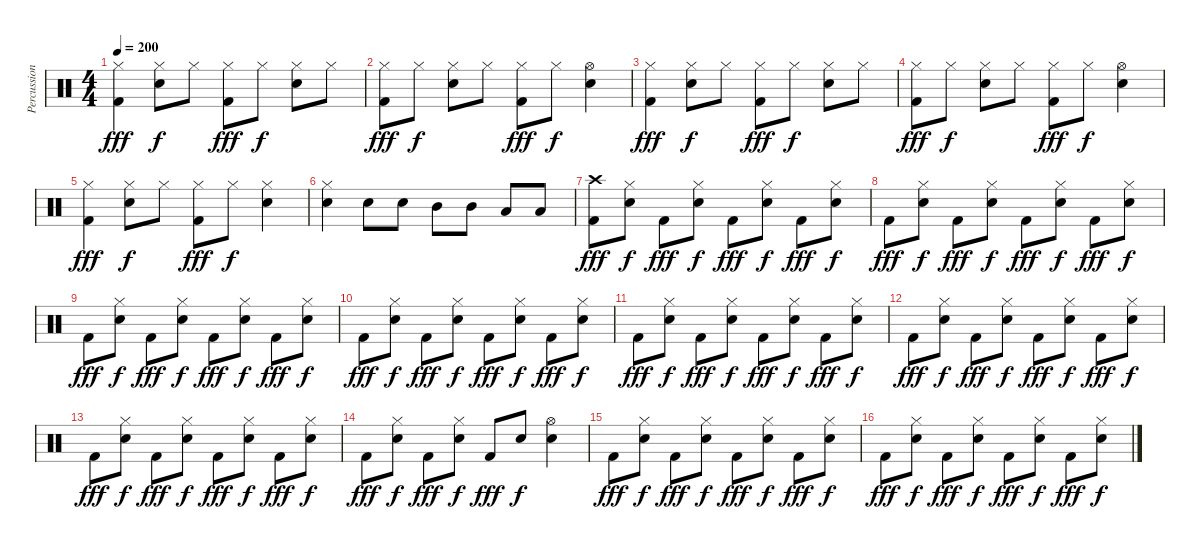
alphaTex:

\track ("Percussion" "Percussion") {instrument percussion}
\staff {score}
\articulation defaults
\ts (4 4)
\tempo 200
\clef neutral
\ks c
("Hi-Hat (closed)" "Kick (hit) 2").4{dy fff} ("Hi-Hat (closed)" "Electric Snare (hit)").8{dy f} "Hi-Hat (closed)".8 ("Hi-Hat (closed)" "Kick (hit) 2").8{dy fff} "Hi-Hat (closed)".8{dy f} ("Hi-Hat (closed)" "Electric Snare (hit)").8 "Hi-Hat (closed)".8 |
("Hi-Hat (closed)" "Kick (hit) 2").8{dy fff} "Hi-Hat (closed)".8{dy f} ("Hi-Hat (closed)" "Electric Snare (hit)").8 "Hi-Hat (closed)".8 ("Hi-Hat (closed)" "Kick (hit) 2").8{dy fff} "Hi-Hat (closed)".8{dy f} ("Hi-Hat (open)" "Electric Snare (hit)").4 |
("Hi-Hat (closed)" "Kick (hit) 2").4{dy fff} ("Hi-Hat (closed)" "Electric Snare (hit)").8{dy f} "Hi-Hat (closed)".8 ("Hi-Hat (closed)" "Kick (hit) 2").8{dy fff} "Hi-Hat (closed)".8{dy f} ("Hi-Hat (closed)" "Electric Snare (hit)").8 "Hi-Hat (closed)".8 |
("Hi-Hat (closed)" "Kick (hit) 2").8{dy fff} "Hi-Hat (closed)".8{dy f} ("Hi-Hat (closed)" "Electric Snare (hit)").8 "Hi-Hat (closed)".8 ("Hi-Hat (closed)" "Kick (hit) 2").8{dy fff} "Hi-Hat (closed)".8{dy f} ("Hi-Hat (open)" "Electric Snare (hit)").4 |
("Hi-Hat (closed)" "Kick (hit) 2").4{dy fff} ("Hi-Hat (closed)" "Electric Snare (hit)").8{dy f} "Hi-Hat (closed)".8 ("Hi-Hat (closed)" "Kick (hit) 2").8{dy fff} "Hi-Hat (closed)".8{dy f} ("Hi-Hat (closed)" "Electric Snare (hit)").4 |
("Hi-Hat (closed)" "Electric Snare (hit)").4 "Electric Snare (hit)".8 "Electric Snare (hit)".8 "Mid Tom (hit)".8 "Mid Tom (hit)".8 "Low Tom (hit)".8 "Low Tom (hit)".8 |
("Crash high (hit)" "Kick (hit) 2").8{dy fff} ("Hi-Hat (closed)" "Electric Snare (hit)").8{dy f} "Kick (hit) 2".8{dy fff} ("Hi-Hat (closed)" "Electric Snare (hit)").8{dy f} "Kick (hit) 2".8{dy fff} ("Hi-Hat (closed)" "Electric Snare (hit)").8{dy f} "Kick (hit) 2".8{dy fff} ("Hi-Hat (closed)" "Electric Snare (hit)").8{dy f} |
"Kick (hit) 2".8{dy fff} ("Hi-Hat (closed)" "Electric Snare (hit)").8{dy f} "Kick (hit) 2".8{dy fff} ("Hi-Hat (closed)" "Electric Snare (hit)").8{dy f} "Kick (hit) 2".8{dy fff} ("Hi-Hat (closed)" "Electric Snare (hit)").8{dy f} "Kick (hit) 2".8{dy fff} ("Hi-Hat (closed)" "Electric Snare (hit)").8{dy f} |
"Kick (hit) 2".8{dy fff} ("Hi-Hat (closed)" "Electric Snare (hit)").8{dy f} "Kick (hit) 2".8{dy fff} ("Hi-Hat (closed)" "Electric Snare (hit)").8{dy f} "Kick (hit) 2".8{dy fff} ("Hi-Hat (closed)" "Electric Snare (hit)").8{dy f} "Kick (hit) 2".8{dy fff} ("Hi-Hat (closed)" "Electric Snare (hit)").8{dy f} |
"Kick (hit) 2".8{dy fff} ("Hi-Hat (closed)" "Electric Snare (hit)").8{dy f} "Kick (hit) 2".8{dy fff} ("Hi-Hat (closed)" "Electric Snare (hit)").8{dy f} "Kick (hit) 2".8{dy fff} ("Hi-Hat (closed)" "Electric Snare (hit)").8{dy f} "Kick (hit) 2".8{dy fff} ("Hi-Hat (closed)" "Electric Snare (hit)").8{dy f} |
"Kick (hit) 2".8{dy fff} ("Hi-Hat (closed)" "Electric Snare (hit)").8{dy f} "Kick (hit) 2".8{dy fff} ("Hi-Hat (closed)" "Electric Snare (hit)").8{dy f} "Kick (hit) 2".8{dy fff} ("Hi-Hat (closed)" "Electric Snare (hit)").8{dy f} "Kick (hit) 2".8{dy fff} ("Hi-Hat (closed)" "Electric Snare (hit)").8{dy f} |
"Kick (hit) 2".8{dy fff} ("Hi-Hat (closed)" "Electric Snare (hit)").8{dy f} "Kick (hit) 2".8{dy fff} ("Hi-Hat (closed)" "Electric Snare (hit)").8{dy f} "Kick (hit) 2".8{dy fff} ("Hi-Hat (closed)" "Electric Snare (hit)").8{dy f} "Kick (hit) 2".8{dy fff} ("Hi-Hat (closed)" "Electric Snare (hit)").8{dy f} |
"Kick (hit) 2".8{dy fff} ("Hi-Hat (closed)" "Electric Snare (hit)").8{dy f} "Kick (hit) 2".8{dy fff} ("Hi-Hat (closed)" "Electric Snare (hit)").8{dy f} "Kick (hit) 2".8{dy fff} ("Hi-Hat (closed)" "Electric Snare (hit)").8{dy f} "Kick (hit) 2".8{dy fff} ("Hi-Hat (closed)" "Electric Snare (hit)").8{dy f} |
"Kick (hit) 2".8{dy fff} ("Hi-Hat (closed)" "Electric Snare (hit)").8{dy f} "Kick (hit) 2".8{dy fff} ("Hi-Hat (closed)" "Electric Snare (hit)").8{dy f} "Kick (hit) 2".8{dy fff} "Electric Snare (hit)".8{dy f} ("Hi-Hat (open)" "Electric Snare (hit)").4 |
"Kick (hit) 2".8{dy fff} ("Hi-Hat (closed)" "Electric Snare (hit)").8{dy f} "Kick (hit) 2".8{dy fff} ("Hi-Hat (closed)" "Electric Snare (hit)").8{dy f} "Kick (hit) 2".8{dy fff} ("Hi-Hat (closed)" "Electric Snare (hit)").8{dy f} "Kick (hit) 2".8{dy fff} ("Hi-Hat (closed)" "Electric Snare (hit)").8{dy f} |
"Kick (hit) 2".8{dy fff} ("Hi-Hat (closed)" "Electric Snare (hit)").8{dy f} "Kick (hit) 2".8{dy fff} ("Hi-Hat (closed)" "Electric Snare (hit)").8{dy f} "Kick (hit) 2".8{dy fff} ("Hi-Hat (closed)" "Electric Snare (hit)").8{dy f} "Kick (hit) 2".8{dy fff} ("Hi-Hat (closed)" "Electric Snare (hit)").8{dy f}
